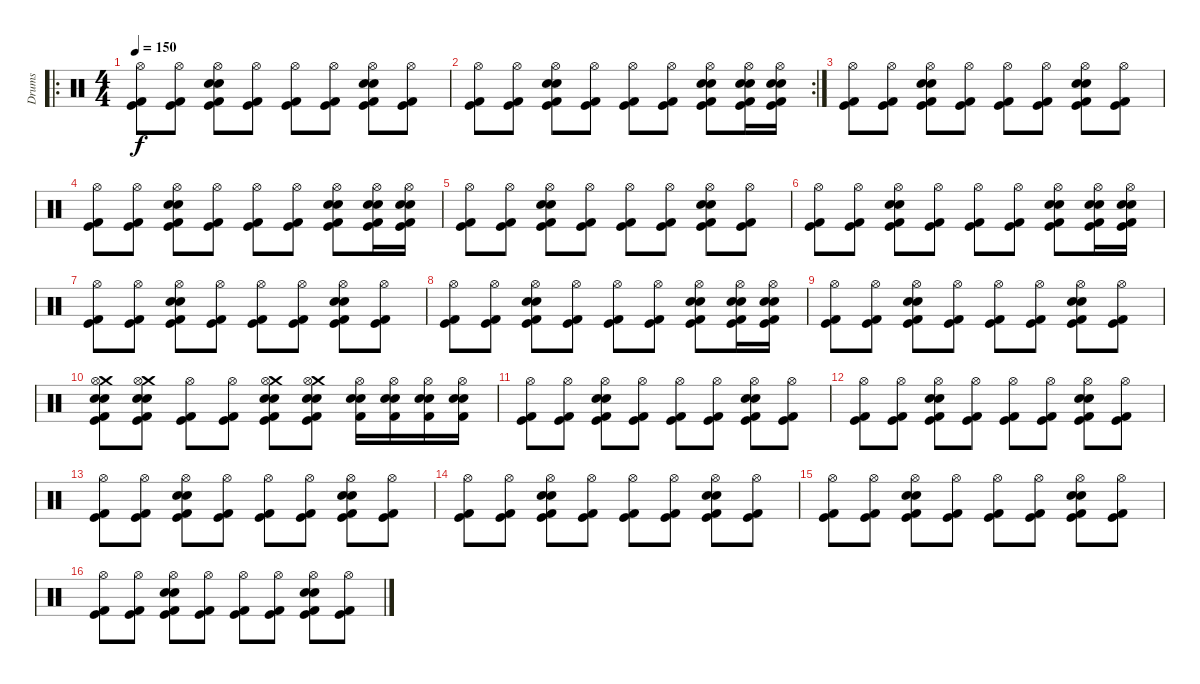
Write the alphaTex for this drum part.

\track ("Drums" "Drums") {instrument percussion}
\staff {score}
\articulation defaults
\ro
\ts (4 4)
\tempo 150
\clef neutral
\ks c
("Hi-Hat (open)" "Kick (hit)" "Kick (hit) 2").8{dy f} ("Hi-Hat (open)" "Kick (hit)" "Kick (hit) 2").8 ("Snare (hit) 2" "Electric Snare (hit)" "Hi-Hat (open)" "Kick (hit)" "Kick (hit) 2").8 ("Hi-Hat (open)" "Kick (hit)" "Kick (hit) 2").8 ("Hi-Hat (open)" "Kick (hit)" "Kick (hit) 2").8 ("Hi-Hat (open)" "Kick (hit)" "Kick (hit) 2").8 ("Snare (hit) 2" "Electric Snare (hit)" "Hi-Hat (open)" "Kick (hit)" "Kick (hit) 2").8 ("Hi-Hat (open)" "Kick (hit)" "Kick (hit) 2").8 |
\rc 2
("Hi-Hat (open)" "Kick (hit)" "Kick (hit) 2").8 ("Hi-Hat (open)" "Kick (hit)" "Kick (hit) 2").8 ("Snare (hit) 2" "Electric Snare (hit)" "Hi-Hat (open)" "Kick (hit)" "Kick (hit) 2").8 ("Hi-Hat (open)" "Kick (hit)" "Kick (hit) 2").8 ("Hi-Hat (open)" "Kick (hit)" "Kick (hit) 2").8 ("Hi-Hat (open)" "Kick (hit)" "Kick (hit) 2").8 ("Snare (hit) 2" "Electric Snare (hit)" "Hi-Hat (open)" "Kick (hit)" "Kick (hit) 2").8 ("Snare (hit) 2" "Electric Snare (hit)" "Hi-Hat (open)" "Kick (hit)" "Kick (hit) 2").16 ("Snare (hit) 2" "Electric Snare (hit)" "Hi-Hat (open)" "Kick (hit)" "Kick (hit) 2").16 |
("Hi-Hat (open)" "Kick (hit)" "Kick (hit) 2").8 ("Hi-Hat (open)" "Kick (hit)" "Kick (hit) 2").8 ("Snare (hit) 2" "Electric Snare (hit)" "Hi-Hat (open)" "Kick (hit)" "Kick (hit) 2").8 ("Hi-Hat (open)" "Kick (hit)" "Kick (hit) 2").8 ("Hi-Hat (open)" "Kick (hit)" "Kick (hit) 2").8 ("Hi-Hat (open)" "Kick (hit)" "Kick (hit) 2").8 ("Snare (hit) 2" "Electric Snare (hit)" "Hi-Hat (open)" "Kick (hit)" "Kick (hit) 2").8 ("Hi-Hat (open)" "Kick (hit)" "Kick (hit) 2").8 |
("Hi-Hat (open)" "Kick (hit)" "Kick (hit) 2").8 ("Hi-Hat (open)" "Kick (hit)" "Kick (hit) 2").8 ("Snare (hit) 2" "Electric Snare (hit)" "Hi-Hat (open)" "Kick (hit)" "Kick (hit) 2").8 ("Hi-Hat (open)" "Kick (hit)" "Kick (hit) 2").8 ("Hi-Hat (open)" "Kick (hit)" "Kick (hit) 2").8 ("Hi-Hat (open)" "Kick (hit)" "Kick (hit) 2").8 ("Snare (hit) 2" "Electric Snare (hit)" "Hi-Hat (open)" "Kick (hit)" "Kick (hit) 2").8 ("Snare (hit) 2" "Electric Snare (hit)" "Hi-Hat (open)" "Kick (hit)" "Kick (hit) 2").16 ("Snare (hit) 2" "Electric Snare (hit)" "Hi-Hat (open)" "Kick (hit)" "Kick (hit) 2").16 |
("Hi-Hat (open)" "Kick (hit)" "Kick (hit) 2").8 ("Hi-Hat (open)" "Kick (hit)" "Kick (hit) 2").8 ("Snare (hit) 2" "Electric Snare (hit)" "Hi-Hat (open)" "Kick (hit)" "Kick (hit) 2").8 ("Hi-Hat (open)" "Kick (hit)" "Kick (hit) 2").8 ("Hi-Hat (open)" "Kick (hit)" "Kick (hit) 2").8 ("Hi-Hat (open)" "Kick (hit)" "Kick (hit) 2").8 ("Snare (hit) 2" "Electric Snare (hit)" "Hi-Hat (open)" "Kick (hit)" "Kick (hit) 2").8 ("Hi-Hat (open)" "Kick (hit)" "Kick (hit) 2").8 |
("Hi-Hat (open)" "Kick (hit)" "Kick (hit) 2").8 ("Hi-Hat (open)" "Kick (hit)" "Kick (hit) 2").8 ("Snare (hit) 2" "Electric Snare (hit)" "Hi-Hat (open)" "Kick (hit)" "Kick (hit) 2").8 ("Hi-Hat (open)" "Kick (hit)" "Kick (hit) 2").8 ("Hi-Hat (open)" "Kick (hit)" "Kick (hit) 2").8 ("Hi-Hat (open)" "Kick (hit)" "Kick (hit) 2").8 ("Snare (hit) 2" "Electric Snare (hit)" "Hi-Hat (open)" "Kick (hit)" "Kick (hit) 2").8 ("Snare (hit) 2" "Electric Snare (hit)" "Hi-Hat (open)" "Kick (hit)" "Kick (hit) 2").16 ("Snare (hit) 2" "Electric Snare (hit)" "Hi-Hat (open)" "Kick (hit)" "Kick (hit) 2").16 |
("Hi-Hat (open)" "Kick (hit)" "Kick (hit) 2").8 ("Hi-Hat (open)" "Kick (hit)" "Kick (hit) 2").8 ("Snare (hit) 2" "Electric Snare (hit)" "Hi-Hat (open)" "Kick (hit)" "Kick (hit) 2").8 ("Hi-Hat (open)" "Kick (hit)" "Kick (hit) 2").8 ("Hi-Hat (open)" "Kick (hit)" "Kick (hit) 2").8 ("Hi-Hat (open)" "Kick (hit)" "Kick (hit) 2").8 ("Snare (hit) 2" "Electric Snare (hit)" "Hi-Hat (open)" "Kick (hit)" "Kick (hit) 2").8 ("Hi-Hat (open)" "Kick (hit)" "Kick (hit) 2").8 |
("Hi-Hat (open)" "Kick (hit)" "Kick (hit) 2").8 ("Hi-Hat (open)" "Kick (hit)" "Kick (hit) 2").8 ("Snare (hit) 2" "Electric Snare (hit)" "Hi-Hat (open)" "Kick (hit)" "Kick (hit) 2").8 ("Hi-Hat (open)" "Kick (hit)" "Kick (hit) 2").8 ("Hi-Hat (open)" "Kick (hit)" "Kick (hit) 2").8 ("Hi-Hat (open)" "Kick (hit)" "Kick (hit) 2").8 ("Snare (hit) 2" "Electric Snare (hit)" "Hi-Hat (open)" "Kick (hit)" "Kick (hit) 2").8 ("Snare (hit) 2" "Electric Snare (hit)" "Hi-Hat (open)" "Kick (hit)" "Kick (hit) 2").16 ("Snare (hit) 2" "Electric Snare (hit)" "Hi-Hat (open)" "Kick (hit)" "Kick (hit) 2").16 |
("Hi-Hat (open)" "Kick (hit)" "Kick (hit) 2").8 ("Hi-Hat (open)" "Kick (hit)" "Kick (hit) 2").8 ("Snare (hit) 2" "Electric Snare (hit)" "Hi-Hat (open)" "Kick (hit)" "Kick (hit) 2").8 ("Hi-Hat (open)" "Kick (hit)" "Kick (hit) 2").8 ("Hi-Hat (open)" "Kick (hit)" "Kick (hit) 2").8 ("Hi-Hat (open)" "Kick (hit)" "Kick (hit) 2").8 ("Snare (hit) 2" "Electric Snare (hit)" "Hi-Hat (open)" "Kick (hit)" "Kick (hit) 2").8 ("Hi-Hat (open)" "Kick (hit)" "Kick (hit) 2").8 |
("Crash medium (hit)" "Snare (hit) 2" "Electric Snare (hit)" "Hi-Hat (open)" "Kick (hit)" "Kick (hit) 2").8 ("Crash medium (hit)" "Snare (hit) 2" "Electric Snare (hit)" "Hi-Hat (open)" "Kick (hit)" "Kick (hit) 2").8 ("Hi-Hat (open)" "Kick (hit)" "Kick (hit) 2").8 ("Hi-Hat (open)" "Kick (hit)" "Kick (hit) 2").8 ("Crash medium (hit)" "Snare (hit) 2" "Electric Snare (hit)" "Hi-Hat (open)" "Kick (hit)" "Kick (hit) 2").8 ("Crash medium (hit)" "Snare (hit) 2" "Electric Snare (hit)" "Hi-Hat (open)" "Kick (hit)" "Kick (hit) 2").8 ("Hi-Hat (open)" "Kick (hit) 2" "Electric Snare (hit)" "Snare (hit) 2").16 ("Hi-Hat (open)" "Kick (hit) 2" "Electric Snare (hit)" "Snare (hit) 2").16 ("Hi-Hat (open)" "Kick (hit) 2" "Electric Snare (hit)" "Snare (hit) 2").16 ("Hi-Hat (open)" "Kick (hit) 2" "Electric Snare (hit)" "Snare (hit) 2").16 |
("Hi-Hat (open)" "Kick (hit)" "Kick (hit) 2").8 ("Hi-Hat (open)" "Kick (hit)" "Kick (hit) 2").8 ("Snare (hit) 2" "Electric Snare (hit)" "Hi-Hat (open)" "Kick (hit)" "Kick (hit) 2").8 ("Hi-Hat (open)" "Kick (hit)" "Kick (hit) 2").8 ("Hi-Hat (open)" "Kick (hit)" "Kick (hit) 2").8 ("Hi-Hat (open)" "Kick (hit)" "Kick (hit) 2").8 ("Snare (hit) 2" "Electric Snare (hit)" "Hi-Hat (open)" "Kick (hit)" "Kick (hit) 2").8 ("Hi-Hat (open)" "Kick (hit)" "Kick (hit) 2").8 |
("Hi-Hat (open)" "Kick (hit)" "Kick (hit) 2").8 ("Hi-Hat (open)" "Kick (hit)" "Kick (hit) 2").8 ("Snare (hit) 2" "Electric Snare (hit)" "Hi-Hat (open)" "Kick (hit)" "Kick (hit) 2").8 ("Hi-Hat (open)" "Kick (hit)" "Kick (hit) 2").8 ("Hi-Hat (open)" "Kick (hit)" "Kick (hit) 2").8 ("Hi-Hat (open)" "Kick (hit)" "Kick (hit) 2").8 ("Snare (hit) 2" "Electric Snare (hit)" "Hi-Hat (open)" "Kick (hit)" "Kick (hit) 2").8 ("Hi-Hat (open)" "Kick (hit)" "Kick (hit) 2").8 |
("Hi-Hat (open)" "Kick (hit)" "Kick (hit) 2").8 ("Hi-Hat (open)" "Kick (hit)" "Kick (hit) 2").8 ("Snare (hit) 2" "Electric Snare (hit)" "Hi-Hat (open)" "Kick (hit)" "Kick (hit) 2").8 ("Hi-Hat (open)" "Kick (hit)" "Kick (hit) 2").8 ("Hi-Hat (open)" "Kick (hit)" "Kick (hit) 2").8 ("Hi-Hat (open)" "Kick (hit)" "Kick (hit) 2").8 ("Snare (hit) 2" "Electric Snare (hit)" "Hi-Hat (open)" "Kick (hit)" "Kick (hit) 2").8 ("Hi-Hat (open)" "Kick (hit)" "Kick (hit) 2").8 |
("Hi-Hat (open)" "Kick (hit)" "Kick (hit) 2").8 ("Hi-Hat (open)" "Kick (hit)" "Kick (hit) 2").8 ("Snare (hit) 2" "Electric Snare (hit)" "Hi-Hat (open)" "Kick (hit)" "Kick (hit) 2").8 ("Hi-Hat (open)" "Kick (hit)" "Kick (hit) 2").8 ("Hi-Hat (open)" "Kick (hit)" "Kick (hit) 2").8 ("Hi-Hat (open)" "Kick (hit)" "Kick (hit) 2").8 ("Snare (hit) 2" "Electric Snare (hit)" "Hi-Hat (open)" "Kick (hit)" "Kick (hit) 2").8 ("Hi-Hat (open)" "Kick (hit)" "Kick (hit) 2").8 |
("Hi-Hat (open)" "Kick (hit)" "Kick (hit) 2").8 ("Hi-Hat (open)" "Kick (hit)" "Kick (hit) 2").8 ("Snare (hit) 2" "Electric Snare (hit)" "Hi-Hat (open)" "Kick (hit)" "Kick (hit) 2").8 ("Hi-Hat (open)" "Kick (hit)" "Kick (hit) 2").8 ("Hi-Hat (open)" "Kick (hit)" "Kick (hit) 2").8 ("Hi-Hat (open)" "Kick (hit)" "Kick (hit) 2").8 ("Snare (hit) 2" "Electric Snare (hit)" "Hi-Hat (open)" "Kick (hit)" "Kick (hit) 2").8 ("Hi-Hat (open)" "Kick (hit)" "Kick (hit) 2").8 |
("Hi-Hat (open)" "Kick (hit)" "Kick (hit) 2").8 ("Hi-Hat (open)" "Kick (hit)" "Kick (hit) 2").8 ("Snare (hit) 2" "Electric Snare (hit)" "Hi-Hat (open)" "Kick (hit)" "Kick (hit) 2").8 ("Hi-Hat (open)" "Kick (hit)" "Kick (hit) 2").8 ("Hi-Hat (open)" "Kick (hit)" "Kick (hit) 2").8 ("Hi-Hat (open)" "Kick (hit)" "Kick (hit) 2").8 ("Snare (hit) 2" "Electric Snare (hit)" "Hi-Hat (open)" "Kick (hit)" "Kick (hit) 2").8 ("Hi-Hat (open)" "Kick (hit)" "Kick (hit) 2").8
